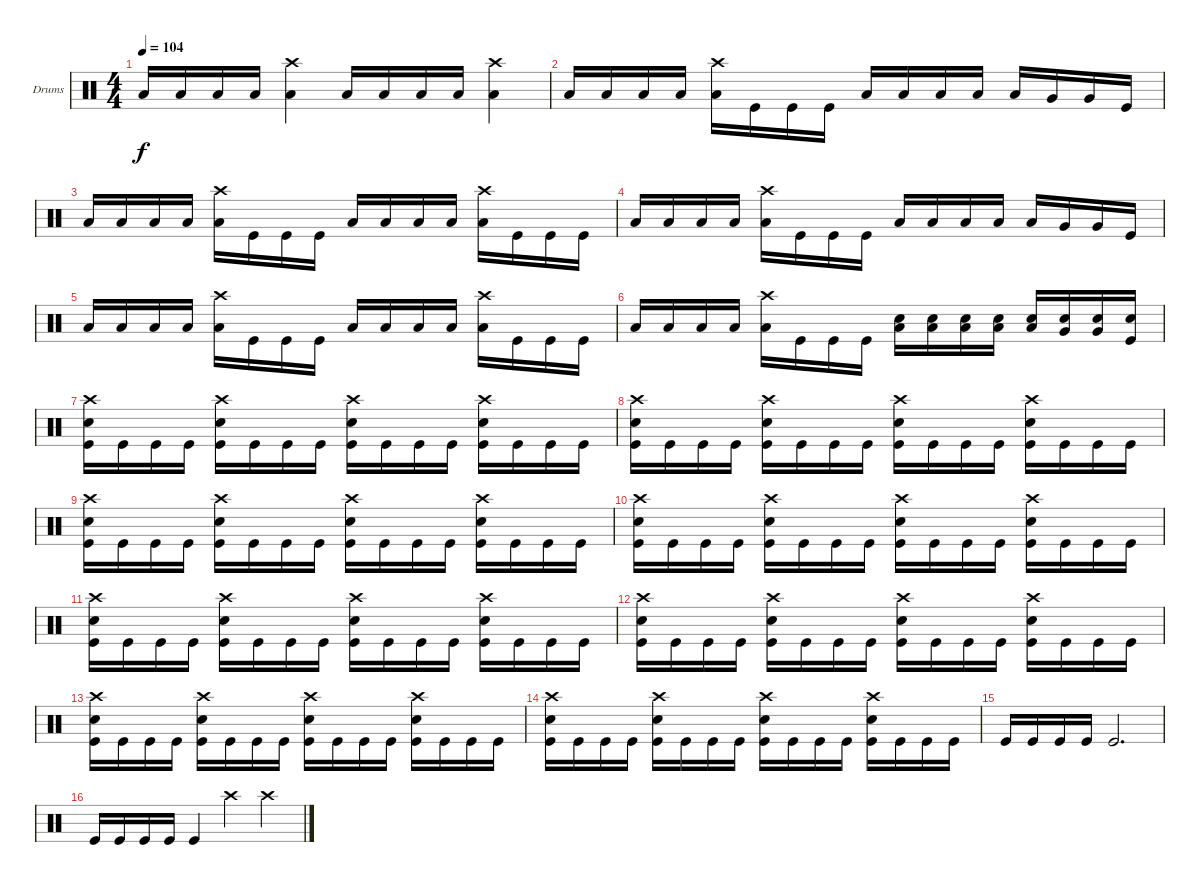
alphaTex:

\bracketExtendMode groupsimilarinstruments
\firstSystemTrackNameOrientation horizontal
\otherSystemsTrackNameOrientation horizontal
\track ("Drumkit" "Drums") {instrument percussion}
\staff {score}
\articulation defaults
\ts (4 4)
\tempo 104
\clef neutral
\ks c "Low Tom (hit)".16{dy f} "Low Tom (hit)".16 "Low Tom (hit)".16 "Low Tom (hit)".16
("Crash high (hit)" "Low Tom (hit)").4 "Low Tom (hit)".16 "Low Tom (hit)".16 "Low Tom (hit)".16 "Low Tom (hit)".16 ("Crash high (hit)" "Low Tom (hit)").4 |
"Low Tom (hit)".16 "Low Tom (hit)".16 "Low Tom (hit)".16 "Low Tom (hit)".16 ("Crash high (hit)" "Low Tom (hit)").16 "Kick (hit)".16 "Kick (hit)".16 "Kick (hit)".16 "Low Tom (hit)".16 "Low Tom (hit)".16 "Low Tom (hit)".16 "Low Tom (hit)".16 "Low Tom (hit)".16 "Very Low Tom (hit)".16 "Very Low Tom (hit)".16 "Kick (hit)".16 |
"Low Tom (hit)".16 "Low Tom (hit)".16 "Low Tom (hit)".16 "Low Tom (hit)".16 ("Crash high (hit)" "Low Tom (hit)").16 "Kick (hit)".16 "Kick (hit)".16 "Kick (hit)".16 "Low Tom (hit)".16 "Low Tom (hit)".16 "Low Tom (hit)".16 "Low Tom (hit)".16 ("Crash high (hit)" "Low Tom (hit)").16 "Kick (hit)".16 "Kick (hit)".16 "Kick (hit)".16 |
"Low Tom (hit)".16 "Low Tom (hit)".16 "Low Tom (hit)".16 "Low Tom (hit)".16 ("Crash high (hit)" "Low Tom (hit)").16 "Kick (hit)".16 "Kick (hit)".16 "Kick (hit)".16 "Low Tom (hit)".16 "Low Tom (hit)".16 "Low Tom (hit)".16 "Low Tom (hit)".16 "Low Tom (hit)".16 "Very Low Tom (hit)".16 "Very Low Tom (hit)".16 "Kick (hit)".16 |
"Low Tom (hit)".16 "Low Tom (hit)".16 "Low Tom (hit)".16 "Low Tom (hit)".16 ("Crash high (hit)" "Low Tom (hit)").16 "Kick (hit)".16 "Kick (hit)".16 "Kick (hit)".16 "Low Tom (hit)".16 "Low Tom (hit)".16 "Low Tom (hit)".16 "Low Tom (hit)".16 ("Crash high (hit)" "Low Tom (hit)").16 "Kick (hit)".16 "Kick (hit)".16 "Kick (hit)".16 |
"Low Tom (hit)".16 "Low Tom (hit)".16 "Low Tom (hit)".16 "Low Tom (hit)".16 ("Crash high (hit)" "Low Tom (hit)").16 "Kick (hit)".16 "Kick (hit)".16 "Kick (hit)".16 ("Snare (hit) 2" "Low Tom (hit)").16 ("Snare (hit) 2" "Low Tom (hit)").16 ("Snare (hit) 2" "Low Tom (hit)").16 ("Snare (hit) 2" "Low Tom (hit)").16 ("Snare (hit) 2" "Low Tom (hit)").16 ("Snare (hit) 2" "Very Low Tom (hit)").16 ("Snare (hit) 2" "Very Low Tom (hit)").16 ("Snare (hit) 2" "Kick (hit)").16 |
("Crash high (hit)" "Snare (hit) 2" "Kick (hit)").16 "Kick (hit)".16 "Kick (hit)".16 "Kick (hit)".16 ("Crash high (hit)" "Snare (hit) 2" "Kick (hit)").16 "Kick (hit)".16 "Kick (hit)".16 "Kick (hit)".16 ("Crash high (hit)" "Snare (hit) 2" "Kick (hit)").16 "Kick (hit)".16 "Kick (hit)".16 "Kick (hit)".16 ("Crash high (hit)" "Snare (hit) 2" "Kick (hit)").16 "Kick (hit)".16 "Kick (hit)".16 "Kick (hit)".16 |
("Crash high (hit)" "Snare (hit) 2" "Kick (hit)").16 "Kick (hit)".16 "Kick (hit)".16 "Kick (hit)".16 ("Crash high (hit)" "Snare (hit) 2" "Kick (hit)").16 "Kick (hit)".16 "Kick (hit)".16 "Kick (hit)".16 ("Crash high (hit)" "Snare (hit) 2" "Kick (hit)").16 "Kick (hit)".16 "Kick (hit)".16 "Kick (hit)".16 ("Crash high (hit)" "Snare (hit) 2" "Kick (hit)").16 "Kick (hit)".16 "Kick (hit)".16 "Kick (hit)".16 |
("Crash high (hit)" "Snare (hit) 2" "Kick (hit)").16 "Kick (hit)".16 "Kick (hit)".16 "Kick (hit)".16 ("Crash high (hit)" "Snare (hit) 2" "Kick (hit)").16 "Kick (hit)".16 "Kick (hit)".16 "Kick (hit)".16 ("Crash high (hit)" "Snare (hit) 2" "Kick (hit)").16 "Kick (hit)".16 "Kick (hit)".16 "Kick (hit)".16 ("Crash high (hit)" "Snare (hit) 2" "Kick (hit)").16 "Kick (hit)".16 "Kick (hit)".16 "Kick (hit)".16 |
("Crash high (hit)" "Snare (hit) 2" "Kick (hit)").16 "Kick (hit)".16 "Kick (hit)".16 "Kick (hit)".16 ("Crash high (hit)" "Snare (hit) 2" "Kick (hit)").16 "Kick (hit)".16 "Kick (hit)".16 "Kick (hit)".16 ("Crash high (hit)" "Snare (hit) 2" "Kick (hit)").16 "Kick (hit)".16 "Kick (hit)".16 "Kick (hit)".16 ("Crash high (hit)" "Snare (hit) 2" "Kick (hit)").16 "Kick (hit)".16 "Kick (hit)".16 "Kick (hit)".16 |
("Crash high (hit)" "Snare (hit) 2" "Kick (hit)").16 "Kick (hit)".16 "Kick (hit)".16 "Kick (hit)".16 ("Crash high (hit)" "Snare (hit) 2" "Kick (hit)").16 "Kick (hit)".16 "Kick (hit)".16 "Kick (hit)".16 ("Crash high (hit)" "Snare (hit) 2" "Kick (hit)").16 "Kick (hit)".16 "Kick (hit)".16 "Kick (hit)".16 ("Crash high (hit)" "Snare (hit) 2" "Kick (hit)").16 "Kick (hit)".16 "Kick (hit)".16 "Kick (hit)".16 |
("Crash high (hit)" "Snare (hit) 2" "Kick (hit)").16 "Kick (hit)".16 "Kick (hit)".16 "Kick (hit)".16 ("Crash high (hit)" "Snare (hit) 2" "Kick (hit)").16 "Kick (hit)".16 "Kick (hit)".16 "Kick (hit)".16 ("Crash high (hit)" "Snare (hit) 2" "Kick (hit)").16 "Kick (hit)".16 "Kick (hit)".16 "Kick (hit)".16 ("Crash high (hit)" "Snare (hit) 2" "Kick (hit)").16 "Kick (hit)".16 "Kick (hit)".16 "Kick (hit)".16 |
("Crash high (hit)" "Snare (hit) 2" "Kick (hit)").16 "Kick (hit)".16 "Kick (hit)".16 "Kick (hit)".16 ("Crash high (hit)" "Snare (hit) 2" "Kick (hit)").16 "Kick (hit)".16 "Kick (hit)".16 "Kick (hit)".16 ("Crash high (hit)" "Snare (hit) 2" "Kick (hit)").16 "Kick (hit)".16 "Kick (hit)".16 "Kick (hit)".16 ("Crash high (hit)" "Snare (hit) 2" "Kick (hit)").16 "Kick (hit)".16 "Kick (hit)".16 "Kick (hit)".16 |
("Crash high (hit)" "Snare (hit) 2" "Kick (hit)").16 "Kick (hit)".16 "Kick (hit)".16 "Kick (hit)".16 ("Crash high (hit)" "Snare (hit) 2" "Kick (hit)").16 "Kick (hit)".16 "Kick (hit)".16 "Kick (hit)".16 ("Crash high (hit)" "Snare (hit) 2" "Kick (hit)").16 "Kick (hit)".16 "Kick (hit)".16 "Kick (hit)".16 ("Crash high (hit)" "Snare (hit) 2" "Kick (hit)").16 "Kick (hit)".16 "Kick (hit)".16 "Kick (hit)".16 |
"Kick (hit)".16 "Kick (hit)".16 "Kick (hit)".16 "Kick (hit)".16 "Kick (hit)".2{d} |
"Kick (hit)".16 "Kick (hit)".16 "Kick (hit)".16 "Kick (hit)".16 "Kick (hit)".4 "Crash high (hit)".4 "Crash high (hit)".4
